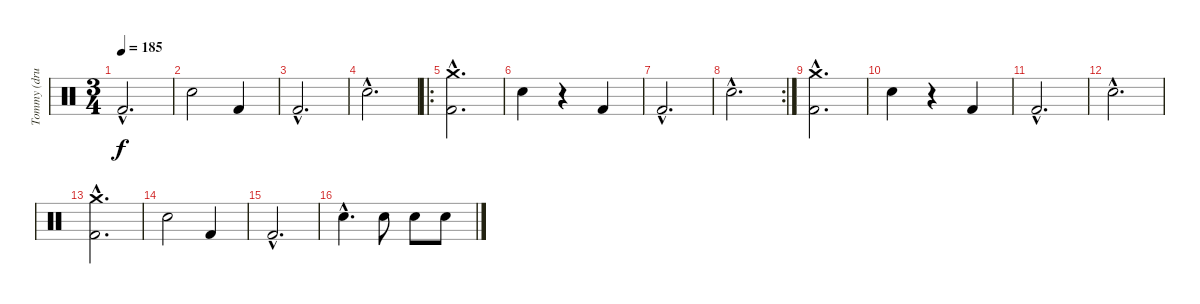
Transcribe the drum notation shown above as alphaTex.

\track ("Tommy (drums)" "Tommy (dru") {instrument percussion}
\staff {score}
\articulation defaults
\ts (3 4)
\tempo 185
\clef neutral
\ks c "Kick (hit) 2"{hac}.2{d dy f}
|
"Electric Snare (hit)".2 "Kick (hit) 2".4 |
"Kick (hit) 2"{hac}.2{d} |
"Electric Snare (hit)"{hac}.2{d} |
\ro
("Crash medium (hit)"{hac} "Kick (hit) 2"{hac}).2{d} |
"Electric Snare (hit)".4 r.4 "Kick (hit) 2".4 |
"Kick (hit) 2"{hac}.2{d} |
\rc 2 "Electric Snare (hit)"{hac}.2{d}
|
("Crash medium (hit)"{hac} "Kick (hit) 2"{hac}).2{d} |
"Electric Snare (hit)".4 r.4 "Kick (hit) 2".4 |
"Kick (hit) 2"{hac}.2{d} |
"Electric Snare (hit)"{hac}.2{d} |
("Crash medium (hit)"{hac} "Kick (hit) 2"{hac}).2{d} |
"Electric Snare (hit)".2 "Kick (hit) 2".4 |
"Kick (hit) 2"{hac}.2{d} |
"Electric Snare (hit)"{hac}.4{d} "Electric Snare (hit)".8 "Electric Snare (hit)".8 "Electric Snare (hit)".8
